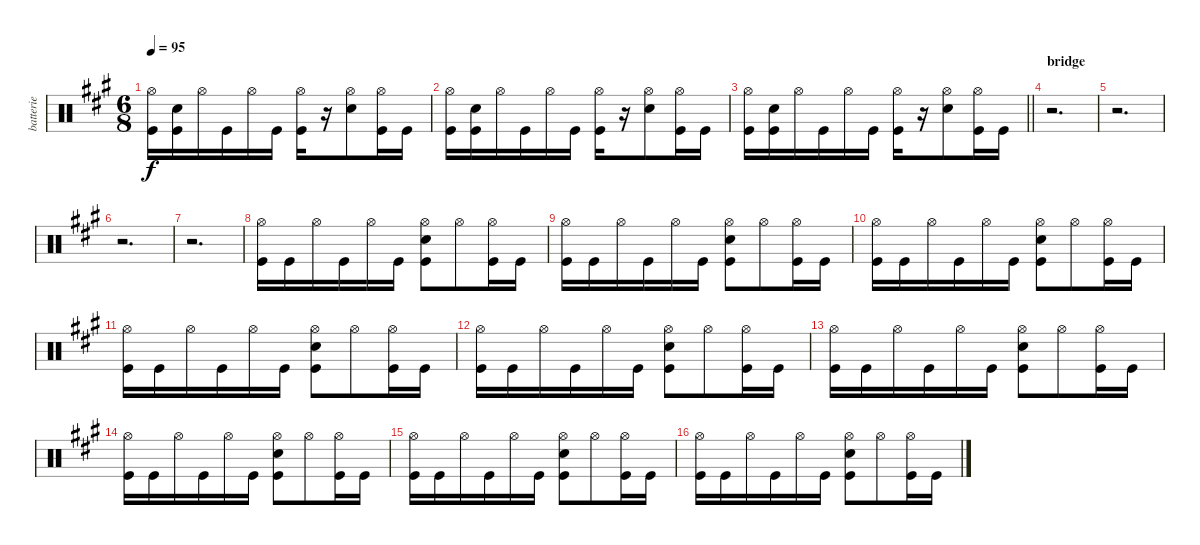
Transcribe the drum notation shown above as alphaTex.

\track ("batterie" "batterie") {instrument percussion}
\staff {score}
\articulation defaults
\ts (6 8)
\tempo 95
\clef neutral
\ks a
("Hi-Hat (open)" "Kick (hit)").16{dy f} ("Electric Snare (hit)" "Kick (hit)").16 "Hi-Hat (open)".16 "Kick (hit)".16 "Hi-Hat (open)".16 "Kick (hit)".16 ("Hi-Hat (open)" "Kick (hit)").16 r.16 ("Hi-Hat (open)" "Electric Snare (hit)").8 ("Hi-Hat (open)" "Kick (hit)").16 "Kick (hit)".16 |
("Hi-Hat (open)" "Kick (hit)").16 ("Electric Snare (hit)" "Kick (hit)").16 "Hi-Hat (open)".16 "Kick (hit)".16 "Hi-Hat (open)".16 "Kick (hit)".16 ("Hi-Hat (open)" "Kick (hit)").16 r.16 ("Hi-Hat (open)" "Electric Snare (hit)").8 ("Hi-Hat (open)" "Kick (hit)").16 "Kick (hit)".16 |
\barLineRight lightlight
("Hi-Hat (open)" "Kick (hit)").16 ("Electric Snare (hit)" "Kick (hit)").16 "Hi-Hat (open)".16 "Kick (hit)".16 "Hi-Hat (open)".16 "Kick (hit)".16 ("Hi-Hat (open)" "Kick (hit)").16 r.16 ("Hi-Hat (open)" "Electric Snare (hit)").8 ("Hi-Hat (open)" "Kick (hit)").16 "Kick (hit)".16 |
\section ("" "bridge")
r.2{d} |
r.2{d} |
r.2{d} |
r.2{d} |
("Hi-Hat (open)" "Kick (hit)").16 "Kick (hit)".16 "Hi-Hat (open)".16 "Kick (hit)".16 "Hi-Hat (open)".16 "Kick (hit)".16 ("Hi-Hat (open)" "Electric Snare (hit)" "Kick (hit)").8 "Hi-Hat (open)".8 ("Hi-Hat (open)" "Kick (hit)").16 "Kick (hit)".16 |
("Hi-Hat (open)" "Kick (hit)").16 "Kick (hit)".16 "Hi-Hat (open)".16 "Kick (hit)".16 "Hi-Hat (open)".16 "Kick (hit)".16 ("Hi-Hat (open)" "Electric Snare (hit)" "Kick (hit)").8 "Hi-Hat (open)".8 ("Hi-Hat (open)" "Kick (hit)").16 "Kick (hit)".16 |
("Hi-Hat (open)" "Kick (hit)").16 "Kick (hit)".16 "Hi-Hat (open)".16 "Kick (hit)".16 "Hi-Hat (open)".16 "Kick (hit)".16 ("Hi-Hat (open)" "Electric Snare (hit)" "Kick (hit)").8 "Hi-Hat (open)".8 ("Hi-Hat (open)" "Kick (hit)").16 "Kick (hit)".16 |
("Hi-Hat (open)" "Kick (hit)").16 "Kick (hit)".16 "Hi-Hat (open)".16 "Kick (hit)".16 "Hi-Hat (open)".16 "Kick (hit)".16 ("Hi-Hat (open)" "Electric Snare (hit)" "Kick (hit)").8 "Hi-Hat (open)".8 ("Hi-Hat (open)" "Kick (hit)").16 "Kick (hit)".16 |
("Hi-Hat (open)" "Kick (hit)").16 "Kick (hit)".16 "Hi-Hat (open)".16 "Kick (hit)".16 "Hi-Hat (open)".16 "Kick (hit)".16 ("Hi-Hat (open)" "Electric Snare (hit)" "Kick (hit)").8 "Hi-Hat (open)".8 ("Hi-Hat (open)" "Kick (hit)").16 "Kick (hit)".16 |
("Hi-Hat (open)" "Kick (hit)").16 "Kick (hit)".16 "Hi-Hat (open)".16 "Kick (hit)".16 "Hi-Hat (open)".16 "Kick (hit)".16 ("Hi-Hat (open)" "Electric Snare (hit)" "Kick (hit)").8 "Hi-Hat (open)".8 ("Hi-Hat (open)" "Kick (hit)").16 "Kick (hit)".16 |
("Hi-Hat (open)" "Kick (hit)").16 "Kick (hit)".16 "Hi-Hat (open)".16 "Kick (hit)".16 "Hi-Hat (open)".16 "Kick (hit)".16 ("Hi-Hat (open)" "Electric Snare (hit)" "Kick (hit)").8 "Hi-Hat (open)".8 ("Hi-Hat (open)" "Kick (hit)").16 "Kick (hit)".16 |
("Hi-Hat (open)" "Kick (hit)").16 "Kick (hit)".16 "Hi-Hat (open)".16 "Kick (hit)".16 "Hi-Hat (open)".16 "Kick (hit)".16 ("Hi-Hat (open)" "Electric Snare (hit)" "Kick (hit)").8 "Hi-Hat (open)".8 ("Hi-Hat (open)" "Kick (hit)").16 "Kick (hit)".16 |
("Hi-Hat (open)" "Kick (hit)").16 "Kick (hit)".16 "Hi-Hat (open)".16 "Kick (hit)".16 "Hi-Hat (open)".16 "Kick (hit)".16 ("Hi-Hat (open)" "Electric Snare (hit)" "Kick (hit)").8 "Hi-Hat (open)".8 ("Hi-Hat (open)" "Kick (hit)").16 "Kick (hit)".16
